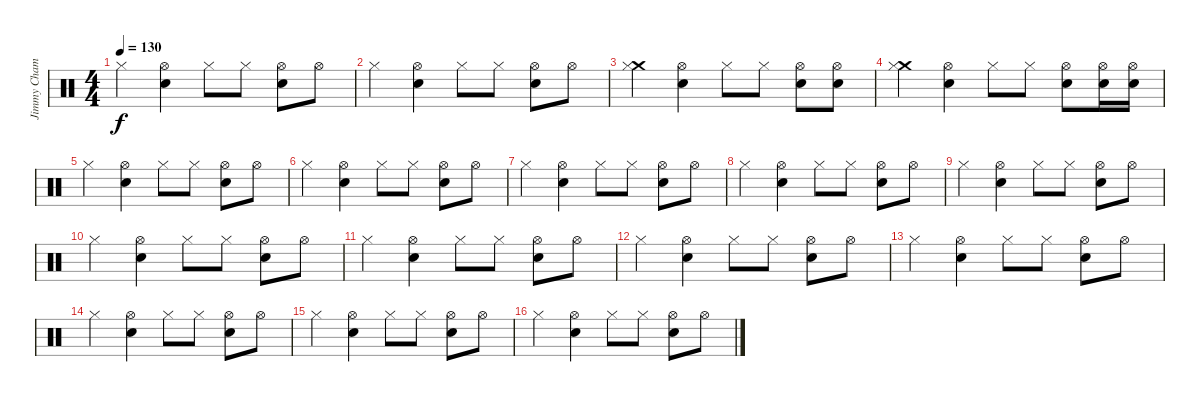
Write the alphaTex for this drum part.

\track ("Jimmy Chamberlin (Drums)" "Jimmy Cham") {instrument percussion}
\staff {score}
\articulation defaults
\ts (4 4)
\tempo 130
\clef neutral
\ks c "Hi-Hat (closed)".4{dy f}
("Snare (hit) 2" "Hi-Hat (open)").4 "Hi-Hat (closed)".8 "Hi-Hat (closed)".8 ("Snare (hit) 2" "Hi-Hat (open)").8 "Hi-Hat (open)".8 |
"Hi-Hat (closed)".4 ("Snare (hit) 2" "Hi-Hat (open)").4 "Hi-Hat (closed)".8 "Hi-Hat (closed)".8 ("Snare (hit) 2" "Hi-Hat (open)").8 "Hi-Hat (open)".8 |
("Crash medium (hit)" "Hi-Hat (closed)").4 ("Snare (hit) 2" "Hi-Hat (open)").4 "Hi-Hat (closed)".8 "Hi-Hat (closed)".8 ("Snare (hit) 2" "Hi-Hat (open)").8 ("Snare (hit) 2" "Hi-Hat (open)").8 |
("Crash medium (hit)" "Hi-Hat (closed)").4 ("Snare (hit) 2" "Hi-Hat (open)").4 "Hi-Hat (closed)".8 "Hi-Hat (closed)".8 ("Snare (hit) 2" "Hi-Hat (open)").8 ("Snare (hit) 2" "Hi-Hat (open)").16 ("Snare (hit) 2" "Hi-Hat (open)").16 |
"Hi-Hat (closed)".4 ("Snare (hit) 2" "Hi-Hat (open)").4 "Hi-Hat (closed)".8 "Hi-Hat (closed)".8 ("Snare (hit) 2" "Hi-Hat (open)").8 "Hi-Hat (open)".8 |
"Hi-Hat (closed)".4 ("Snare (hit) 2" "Hi-Hat (open)").4 "Hi-Hat (closed)".8 "Hi-Hat (closed)".8 ("Snare (hit) 2" "Hi-Hat (open)").8 "Hi-Hat (open)".8 |
"Hi-Hat (closed)".4 ("Snare (hit) 2" "Hi-Hat (open)").4 "Hi-Hat (closed)".8 "Hi-Hat (closed)".8 ("Snare (hit) 2" "Hi-Hat (open)").8 "Hi-Hat (open)".8 |
"Hi-Hat (closed)".4 ("Snare (hit) 2" "Hi-Hat (open)").4 "Hi-Hat (closed)".8 "Hi-Hat (closed)".8 ("Snare (hit) 2" "Hi-Hat (open)").8 "Hi-Hat (open)".8 |
"Hi-Hat (closed)".4 ("Snare (hit) 2" "Hi-Hat (open)").4 "Hi-Hat (closed)".8 "Hi-Hat (closed)".8 ("Snare (hit) 2" "Hi-Hat (open)").8 "Hi-Hat (open)".8 |
"Hi-Hat (closed)".4 ("Snare (hit) 2" "Hi-Hat (open)").4 "Hi-Hat (closed)".8 "Hi-Hat (closed)".8 ("Snare (hit) 2" "Hi-Hat (open)").8 "Hi-Hat (open)".8 |
"Hi-Hat (closed)".4 ("Snare (hit) 2" "Hi-Hat (open)").4 "Hi-Hat (closed)".8 "Hi-Hat (closed)".8 ("Snare (hit) 2" "Hi-Hat (open)").8 "Hi-Hat (open)".8 |
"Hi-Hat (closed)".4 ("Snare (hit) 2" "Hi-Hat (open)").4 "Hi-Hat (closed)".8 "Hi-Hat (closed)".8 ("Snare (hit) 2" "Hi-Hat (open)").8 "Hi-Hat (open)".8 |
"Hi-Hat (closed)".4 ("Snare (hit) 2" "Hi-Hat (open)").4 "Hi-Hat (closed)".8 "Hi-Hat (closed)".8 ("Snare (hit) 2" "Hi-Hat (open)").8 "Hi-Hat (open)".8 |
"Hi-Hat (closed)".4 ("Snare (hit) 2" "Hi-Hat (open)").4 "Hi-Hat (closed)".8 "Hi-Hat (closed)".8 ("Snare (hit) 2" "Hi-Hat (open)").8 "Hi-Hat (open)".8 |
"Hi-Hat (closed)".4 ("Snare (hit) 2" "Hi-Hat (open)").4 "Hi-Hat (closed)".8 "Hi-Hat (closed)".8 ("Snare (hit) 2" "Hi-Hat (open)").8 "Hi-Hat (open)".8 |
"Hi-Hat (closed)".4 ("Snare (hit) 2" "Hi-Hat (open)").4 "Hi-Hat (closed)".8 "Hi-Hat (closed)".8 ("Snare (hit) 2" "Hi-Hat (open)").8 "Hi-Hat (open)".8
